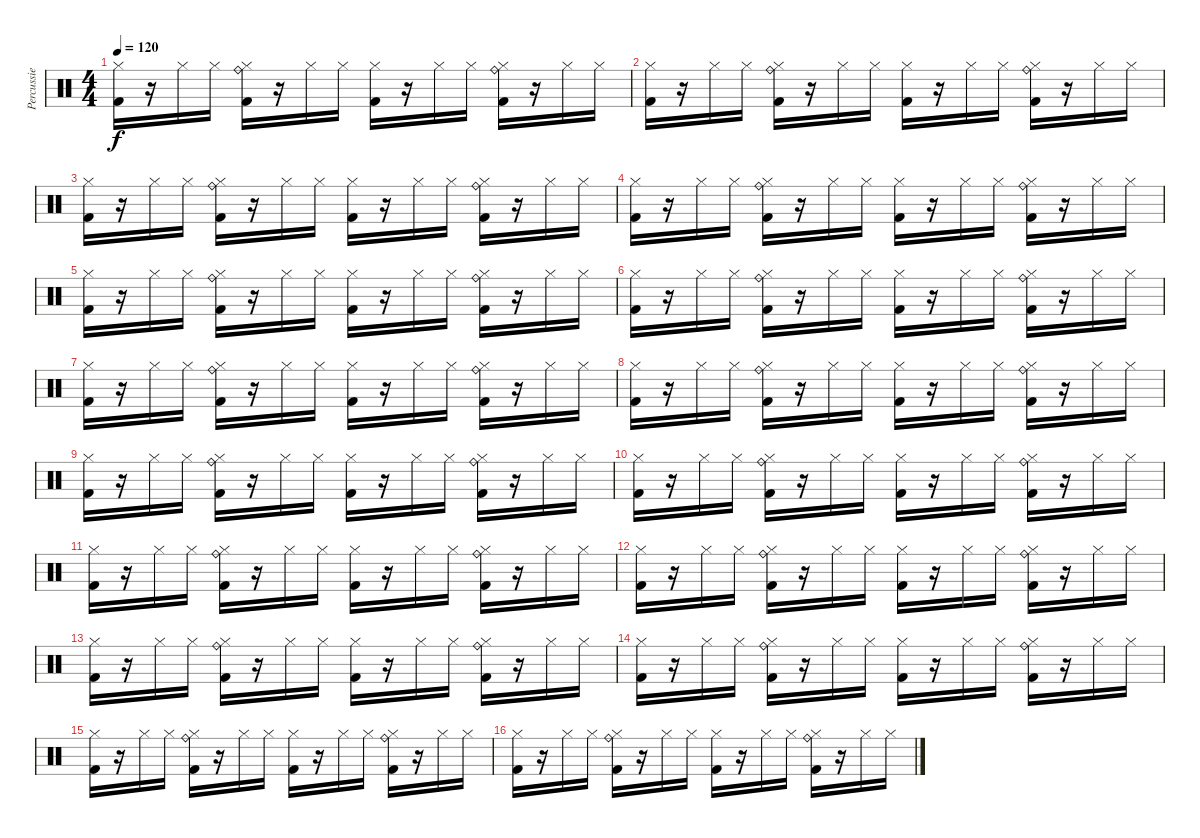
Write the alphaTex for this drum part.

\track ("Percussie" "Percussie") {instrument percussion}
\staff {score}
\articulation defaults
\ts (4 4)
\tempo 120
\clef neutral
\ks c
("Kick (hit) 2" "Hi-Hat (closed)").16{dy f} r.16 "Hi-Hat (closed)".16 "Hi-Hat (closed)".16 ("Kick (hit) 2" "Hi-Hat (closed)" "Ride (bell)").16 r.16 "Hi-Hat (closed)".16 "Hi-Hat (closed)".16 ("Kick (hit) 2" "Hi-Hat (closed)").16 r.16 "Hi-Hat (closed)".16 "Hi-Hat (closed)".16 ("Kick (hit) 2" "Hi-Hat (closed)" "Ride (bell)").16 r.16 "Hi-Hat (closed)".16 "Hi-Hat (closed)".16 |
("Kick (hit) 2" "Hi-Hat (closed)").16 r.16 "Hi-Hat (closed)".16 "Hi-Hat (closed)".16 ("Kick (hit) 2" "Hi-Hat (closed)" "Ride (bell)").16 r.16 "Hi-Hat (closed)".16 "Hi-Hat (closed)".16 ("Kick (hit) 2" "Hi-Hat (closed)").16 r.16 "Hi-Hat (closed)".16 "Hi-Hat (closed)".16 ("Kick (hit) 2" "Hi-Hat (closed)" "Ride (bell)").16 r.16 "Hi-Hat (closed)".16 "Hi-Hat (closed)".16 |
("Kick (hit) 2" "Hi-Hat (closed)").16 r.16 "Hi-Hat (closed)".16 "Hi-Hat (closed)".16 ("Kick (hit) 2" "Hi-Hat (closed)" "Ride (bell)").16 r.16 "Hi-Hat (closed)".16 "Hi-Hat (closed)".16 ("Kick (hit) 2" "Hi-Hat (closed)").16 r.16 "Hi-Hat (closed)".16 "Hi-Hat (closed)".16 ("Kick (hit) 2" "Hi-Hat (closed)" "Ride (bell)").16 r.16 "Hi-Hat (closed)".16 "Hi-Hat (closed)".16 |
("Kick (hit) 2" "Hi-Hat (closed)").16 r.16 "Hi-Hat (closed)".16 "Hi-Hat (closed)".16 ("Kick (hit) 2" "Hi-Hat (closed)" "Ride (bell)").16 r.16 "Hi-Hat (closed)".16 "Hi-Hat (closed)".16 ("Kick (hit) 2" "Hi-Hat (closed)").16 r.16 "Hi-Hat (closed)".16 "Hi-Hat (closed)".16 ("Kick (hit) 2" "Hi-Hat (closed)" "Ride (bell)").16 r.16 "Hi-Hat (closed)".16 "Hi-Hat (closed)".16 |
("Kick (hit) 2" "Hi-Hat (closed)").16 r.16 "Hi-Hat (closed)".16 "Hi-Hat (closed)".16 ("Kick (hit) 2" "Hi-Hat (closed)" "Ride (bell)").16 r.16 "Hi-Hat (closed)".16 "Hi-Hat (closed)".16 ("Kick (hit) 2" "Hi-Hat (closed)").16 r.16 "Hi-Hat (closed)".16 "Hi-Hat (closed)".16 ("Kick (hit) 2" "Hi-Hat (closed)" "Ride (bell)").16 r.16 "Hi-Hat (closed)".16 "Hi-Hat (closed)".16 |
("Kick (hit) 2" "Hi-Hat (closed)").16 r.16 "Hi-Hat (closed)".16 "Hi-Hat (closed)".16 ("Kick (hit) 2" "Hi-Hat (closed)" "Ride (bell)").16 r.16 "Hi-Hat (closed)".16 "Hi-Hat (closed)".16 ("Kick (hit) 2" "Hi-Hat (closed)").16 r.16 "Hi-Hat (closed)".16 "Hi-Hat (closed)".16 ("Kick (hit) 2" "Hi-Hat (closed)" "Ride (bell)").16 r.16 "Hi-Hat (closed)".16 "Hi-Hat (closed)".16 |
("Kick (hit) 2" "Hi-Hat (closed)").16 r.16 "Hi-Hat (closed)".16 "Hi-Hat (closed)".16 ("Kick (hit) 2" "Hi-Hat (closed)" "Ride (bell)").16 r.16 "Hi-Hat (closed)".16 "Hi-Hat (closed)".16 ("Kick (hit) 2" "Hi-Hat (closed)").16 r.16 "Hi-Hat (closed)".16 "Hi-Hat (closed)".16 ("Kick (hit) 2" "Hi-Hat (closed)" "Ride (bell)").16 r.16 "Hi-Hat (closed)".16 "Hi-Hat (closed)".16 |
("Kick (hit) 2" "Hi-Hat (closed)").16 r.16 "Hi-Hat (closed)".16 "Hi-Hat (closed)".16 ("Kick (hit) 2" "Hi-Hat (closed)" "Ride (bell)").16 r.16 "Hi-Hat (closed)".16 "Hi-Hat (closed)".16 ("Kick (hit) 2" "Hi-Hat (closed)").16 r.16 "Hi-Hat (closed)".16 "Hi-Hat (closed)".16 ("Kick (hit) 2" "Hi-Hat (closed)" "Ride (bell)").16 r.16 "Hi-Hat (closed)".16 "Hi-Hat (closed)".16 |
("Kick (hit) 2" "Hi-Hat (closed)").16 r.16 "Hi-Hat (closed)".16 "Hi-Hat (closed)".16 ("Kick (hit) 2" "Hi-Hat (closed)" "Ride (bell)").16 r.16 "Hi-Hat (closed)".16 "Hi-Hat (closed)".16 ("Kick (hit) 2" "Hi-Hat (closed)").16 r.16 "Hi-Hat (closed)".16 "Hi-Hat (closed)".16 ("Kick (hit) 2" "Hi-Hat (closed)" "Ride (bell)").16 r.16 "Hi-Hat (closed)".16 "Hi-Hat (closed)".16 |
("Kick (hit) 2" "Hi-Hat (closed)").16 r.16 "Hi-Hat (closed)".16 "Hi-Hat (closed)".16 ("Kick (hit) 2" "Hi-Hat (closed)" "Ride (bell)").16 r.16 "Hi-Hat (closed)".16 "Hi-Hat (closed)".16 ("Kick (hit) 2" "Hi-Hat (closed)").16 r.16 "Hi-Hat (closed)".16 "Hi-Hat (closed)".16 ("Kick (hit) 2" "Hi-Hat (closed)" "Ride (bell)").16 r.16 "Hi-Hat (closed)".16 "Hi-Hat (closed)".16 |
("Kick (hit) 2" "Hi-Hat (closed)").16 r.16 "Hi-Hat (closed)".16 "Hi-Hat (closed)".16 ("Kick (hit) 2" "Hi-Hat (closed)" "Ride (bell)").16 r.16 "Hi-Hat (closed)".16 "Hi-Hat (closed)".16 ("Kick (hit) 2" "Hi-Hat (closed)").16 r.16 "Hi-Hat (closed)".16 "Hi-Hat (closed)".16 ("Kick (hit) 2" "Hi-Hat (closed)" "Ride (bell)").16 r.16 "Hi-Hat (closed)".16 "Hi-Hat (closed)".16 |
("Kick (hit) 2" "Hi-Hat (closed)").16 r.16 "Hi-Hat (closed)".16 "Hi-Hat (closed)".16 ("Kick (hit) 2" "Hi-Hat (closed)" "Ride (bell)").16 r.16 "Hi-Hat (closed)".16 "Hi-Hat (closed)".16 ("Kick (hit) 2" "Hi-Hat (closed)").16 r.16 "Hi-Hat (closed)".16 "Hi-Hat (closed)".16 ("Kick (hit) 2" "Hi-Hat (closed)" "Ride (bell)").16 r.16 "Hi-Hat (closed)".16 "Hi-Hat (closed)".16 |
("Kick (hit) 2" "Hi-Hat (closed)").16 r.16 "Hi-Hat (closed)".16 "Hi-Hat (closed)".16 ("Kick (hit) 2" "Hi-Hat (closed)" "Ride (bell)").16 r.16 "Hi-Hat (closed)".16 "Hi-Hat (closed)".16 ("Kick (hit) 2" "Hi-Hat (closed)").16 r.16 "Hi-Hat (closed)".16 "Hi-Hat (closed)".16 ("Kick (hit) 2" "Hi-Hat (closed)" "Ride (bell)").16 r.16 "Hi-Hat (closed)".16 "Hi-Hat (closed)".16 |
("Kick (hit) 2" "Hi-Hat (closed)").16 r.16 "Hi-Hat (closed)".16 "Hi-Hat (closed)".16 ("Kick (hit) 2" "Hi-Hat (closed)" "Ride (bell)").16 r.16 "Hi-Hat (closed)".16 "Hi-Hat (closed)".16 ("Kick (hit) 2" "Hi-Hat (closed)").16 r.16 "Hi-Hat (closed)".16 "Hi-Hat (closed)".16 ("Kick (hit) 2" "Hi-Hat (closed)" "Ride (bell)").16 r.16 "Hi-Hat (closed)".16 "Hi-Hat (closed)".16 |
("Kick (hit) 2" "Hi-Hat (closed)").16 r.16 "Hi-Hat (closed)".16 "Hi-Hat (closed)".16 ("Kick (hit) 2" "Hi-Hat (closed)" "Ride (bell)").16 r.16 "Hi-Hat (closed)".16 "Hi-Hat (closed)".16 ("Kick (hit) 2" "Hi-Hat (closed)").16 r.16 "Hi-Hat (closed)".16 "Hi-Hat (closed)".16 ("Kick (hit) 2" "Hi-Hat (closed)" "Ride (bell)").16 r.16 "Hi-Hat (closed)".16 "Hi-Hat (closed)".16 |
("Kick (hit) 2" "Hi-Hat (closed)").16 r.16 "Hi-Hat (closed)".16 "Hi-Hat (closed)".16 ("Kick (hit) 2" "Hi-Hat (closed)" "Ride (bell)").16 r.16 "Hi-Hat (closed)".16 "Hi-Hat (closed)".16 ("Kick (hit) 2" "Hi-Hat (closed)").16 r.16 "Hi-Hat (closed)".16 "Hi-Hat (closed)".16 ("Kick (hit) 2" "Hi-Hat (closed)" "Ride (bell)").16 r.16 "Hi-Hat (closed)".16 "Hi-Hat (closed)".16
